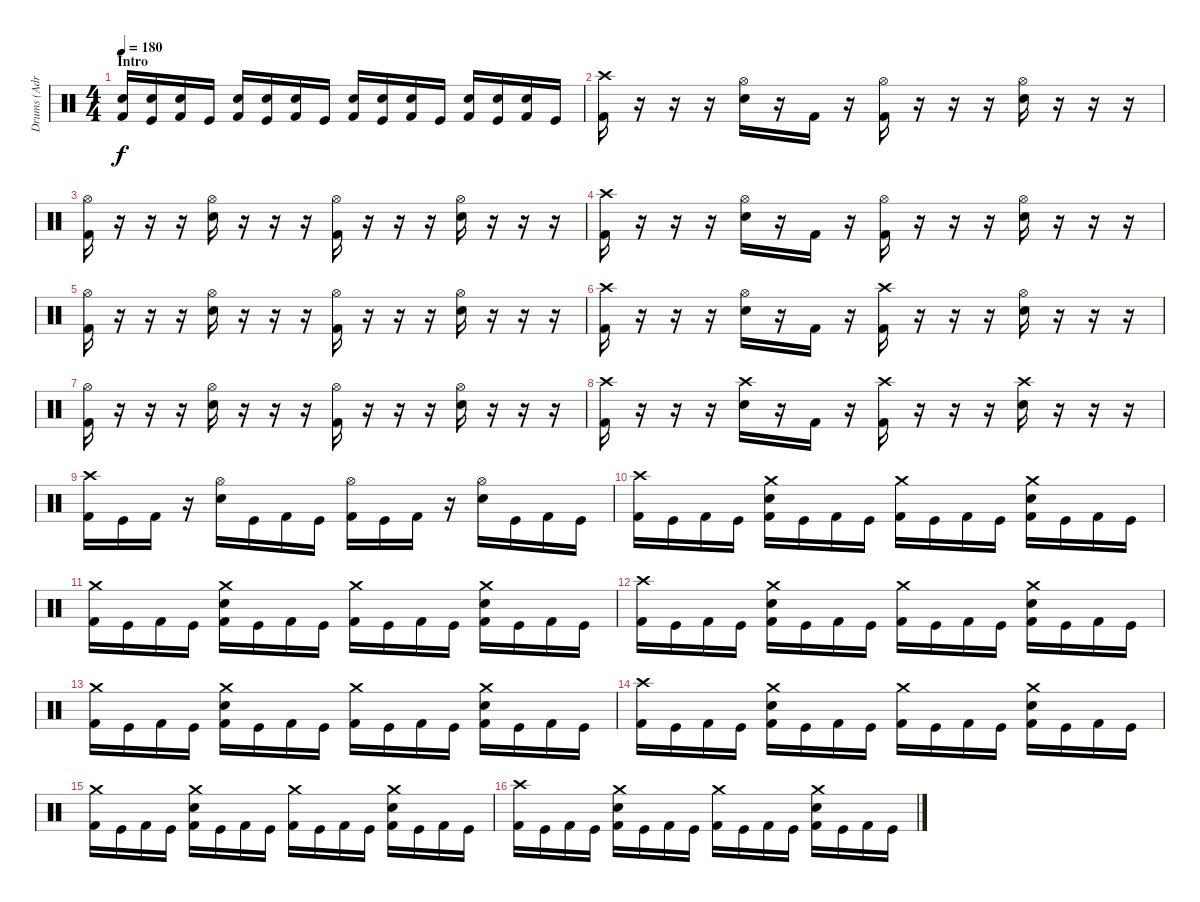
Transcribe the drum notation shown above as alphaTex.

\track ("Drums (Adrian)" "Drums (Adr") {instrument percussion}
\staff {score}
\articulation defaults
\ts (4 4)
\section ("" "Intro")
\tempo 180
\clef neutral
\ks c
("Electric Snare (hit)" "Kick (hit) 2").16{dy f} ("Electric Snare (hit)" "Kick (hit)").16 ("Electric Snare (hit)" "Kick (hit) 2").16 "Kick (hit)".16 ("Electric Snare (hit)" "Kick (hit) 2").16 ("Electric Snare (hit)" "Kick (hit)").16 ("Electric Snare (hit)" "Kick (hit) 2").16 "Kick (hit)".16 ("Electric Snare (hit)" "Kick (hit) 2").16 ("Electric Snare (hit)" "Kick (hit)").16 ("Electric Snare (hit)" "Kick (hit) 2").16 "Kick (hit)".16 ("Electric Snare (hit)" "Kick (hit) 2").16 ("Electric Snare (hit)" "Kick (hit)").16 ("Electric Snare (hit)" "Kick (hit) 2").16 "Kick (hit)".16 |
("Crash high (hit)" "Kick (hit) 2").16 r.16 r.16 r.16 ("Hi-Hat (open)" "Electric Snare (hit)").16 r.16 "Kick (hit) 2".16 r.16 ("Hi-Hat (open)" "Kick (hit) 2").16 r.16 r.16 r.16 ("Hi-Hat (open)" "Electric Snare (hit)").16 r.16 r.16 r.16 |
("Hi-Hat (open)" "Kick (hit) 2").16 r.16 r.16 r.16 ("Hi-Hat (open)" "Electric Snare (hit)").16 r.16 r.16 r.16 ("Hi-Hat (open)" "Kick (hit) 2").16 r.16 r.16 r.16 ("Hi-Hat (open)" "Electric Snare (hit)").16 r.16 r.16 r.16 |
("Crash high (hit)" "Kick (hit) 2").16 r.16 r.16 r.16 ("Hi-Hat (open)" "Electric Snare (hit)").16 r.16 "Kick (hit) 2".16 r.16 ("Hi-Hat (open)" "Kick (hit) 2").16 r.16 r.16 r.16 ("Hi-Hat (open)" "Electric Snare (hit)").16 r.16 r.16 r.16 |
("Hi-Hat (open)" "Kick (hit) 2").16 r.16 r.16 r.16 ("Hi-Hat (open)" "Electric Snare (hit)").16 r.16 r.16 r.16 ("Hi-Hat (open)" "Kick (hit) 2").16 r.16 r.16 r.16 ("Hi-Hat (open)" "Electric Snare (hit)").16 r.16 r.16 r.16 |
("Crash high (hit)" "Kick (hit) 2").16 r.16 r.16 r.16 ("Hi-Hat (open)" "Electric Snare (hit)").16 r.16 "Kick (hit) 2".16 r.16 ("Crash high (hit)" "Kick (hit) 2").16 r.16 r.16 r.16 ("Hi-Hat (open)" "Electric Snare (hit)").16 r.16 r.16 r.16 |
("Hi-Hat (open)" "Kick (hit) 2").16 r.16 r.16 r.16 ("Hi-Hat (open)" "Electric Snare (hit)").16 r.16 r.16 r.16 ("Hi-Hat (open)" "Kick (hit) 2").16 r.16 r.16 r.16 ("Hi-Hat (open)" "Electric Snare (hit)").16 r.16 r.16 r.16 |
("Crash high (hit)" "Kick (hit) 2").16 r.16 r.16 r.16 ("Crash high (hit)" "Electric Snare (hit)").16 r.16 "Kick (hit) 2".16 r.16 ("Crash high (hit)" "Kick (hit) 2").16 r.16 r.16 r.16 ("Crash high (hit)" "Electric Snare (hit)").16 r.16 r.16 r.16 |
("Crash high (hit)" "Kick (hit) 2").16 "Kick (hit)".16 "Kick (hit) 2".16 r.16 ("Hi-Hat (open)" "Electric Snare (hit)").16 "Kick (hit)".16 "Kick (hit) 2".16 "Kick (hit)".16 ("Hi-Hat (open)" "Kick (hit) 2").16 "Kick (hit)".16 "Kick (hit) 2".16 r.16 ("Hi-Hat (open)" "Electric Snare (hit)").16 "Kick (hit)".16 "Kick (hit) 2".16 "Kick (hit)".16 |
("Crash high (hit)" "Kick (hit) 2").16 "Kick (hit)".16 "Kick (hit) 2".16 "Kick (hit)".16 ("Crash medium (hit)" "Electric Snare (hit)" "Kick (hit) 2").16 "Kick (hit)".16 "Kick (hit) 2".16 "Kick (hit)".16 ("Crash medium (hit)" "Kick (hit) 2").16 "Kick (hit)".16 "Kick (hit) 2".16 "Kick (hit)".16 ("Crash medium (hit)" "Electric Snare (hit)" "Kick (hit) 2").16 "Kick (hit)".16 "Kick (hit) 2".16 "Kick (hit)".16 |
("Crash medium (hit)" "Kick (hit) 2").16 "Kick (hit)".16 "Kick (hit) 2".16 "Kick (hit)".16 ("Crash medium (hit)" "Electric Snare (hit)" "Kick (hit) 2").16 "Kick (hit)".16 "Kick (hit) 2".16 "Kick (hit)".16 ("Crash medium (hit)" "Kick (hit) 2").16 "Kick (hit)".16 "Kick (hit) 2".16 "Kick (hit)".16 ("Crash medium (hit)" "Electric Snare (hit)" "Kick (hit) 2").16 "Kick (hit)".16 "Kick (hit) 2".16 "Kick (hit)".16 |
("Crash high (hit)" "Kick (hit) 2").16 "Kick (hit)".16 "Kick (hit) 2".16 "Kick (hit)".16 ("Crash medium (hit)" "Electric Snare (hit)" "Kick (hit) 2").16 "Kick (hit)".16 "Kick (hit) 2".16 "Kick (hit)".16 ("Crash medium (hit)" "Kick (hit) 2").16 "Kick (hit)".16 "Kick (hit) 2".16 "Kick (hit)".16 ("Crash medium (hit)" "Electric Snare (hit)" "Kick (hit) 2").16 "Kick (hit)".16 "Kick (hit) 2".16 "Kick (hit)".16 |
("Crash medium (hit)" "Kick (hit) 2").16 "Kick (hit)".16 "Kick (hit) 2".16 "Kick (hit)".16 ("Crash medium (hit)" "Electric Snare (hit)" "Kick (hit) 2").16 "Kick (hit)".16 "Kick (hit) 2".16 "Kick (hit)".16 ("Crash medium (hit)" "Kick (hit) 2").16 "Kick (hit)".16 "Kick (hit) 2".16 "Kick (hit)".16 ("Crash medium (hit)" "Electric Snare (hit)" "Kick (hit) 2").16 "Kick (hit)".16 "Kick (hit) 2".16 "Kick (hit)".16 |
("Crash high (hit)" "Kick (hit) 2").16 "Kick (hit)".16 "Kick (hit) 2".16 "Kick (hit)".16 ("Crash medium (hit)" "Electric Snare (hit)" "Kick (hit) 2").16 "Kick (hit)".16 "Kick (hit) 2".16 "Kick (hit)".16 ("Crash medium (hit)" "Kick (hit) 2").16 "Kick (hit)".16 "Kick (hit) 2".16 "Kick (hit)".16 ("Crash medium (hit)" "Electric Snare (hit)" "Kick (hit) 2").16 "Kick (hit)".16 "Kick (hit) 2".16 "Kick (hit)".16 |
("Crash medium (hit)" "Kick (hit) 2").16 "Kick (hit)".16 "Kick (hit) 2".16 "Kick (hit)".16 ("Crash medium (hit)" "Electric Snare (hit)" "Kick (hit) 2").16 "Kick (hit)".16 "Kick (hit) 2".16 "Kick (hit)".16 ("Crash medium (hit)" "Kick (hit) 2").16 "Kick (hit)".16 "Kick (hit) 2".16 "Kick (hit)".16 ("Crash medium (hit)" "Electric Snare (hit)" "Kick (hit) 2").16 "Kick (hit)".16 "Kick (hit) 2".16 "Kick (hit)".16 |
("Crash high (hit)" "Kick (hit) 2").16 "Kick (hit)".16 "Kick (hit) 2".16 "Kick (hit)".16 ("Crash medium (hit)" "Electric Snare (hit)" "Kick (hit) 2").16 "Kick (hit)".16 "Kick (hit) 2".16 "Kick (hit)".16 ("Crash medium (hit)" "Kick (hit) 2").16 "Kick (hit)".16 "Kick (hit) 2".16 "Kick (hit)".16 ("Crash medium (hit)" "Electric Snare (hit)" "Kick (hit) 2").16 "Kick (hit)".16 "Kick (hit) 2".16 "Kick (hit)".16
